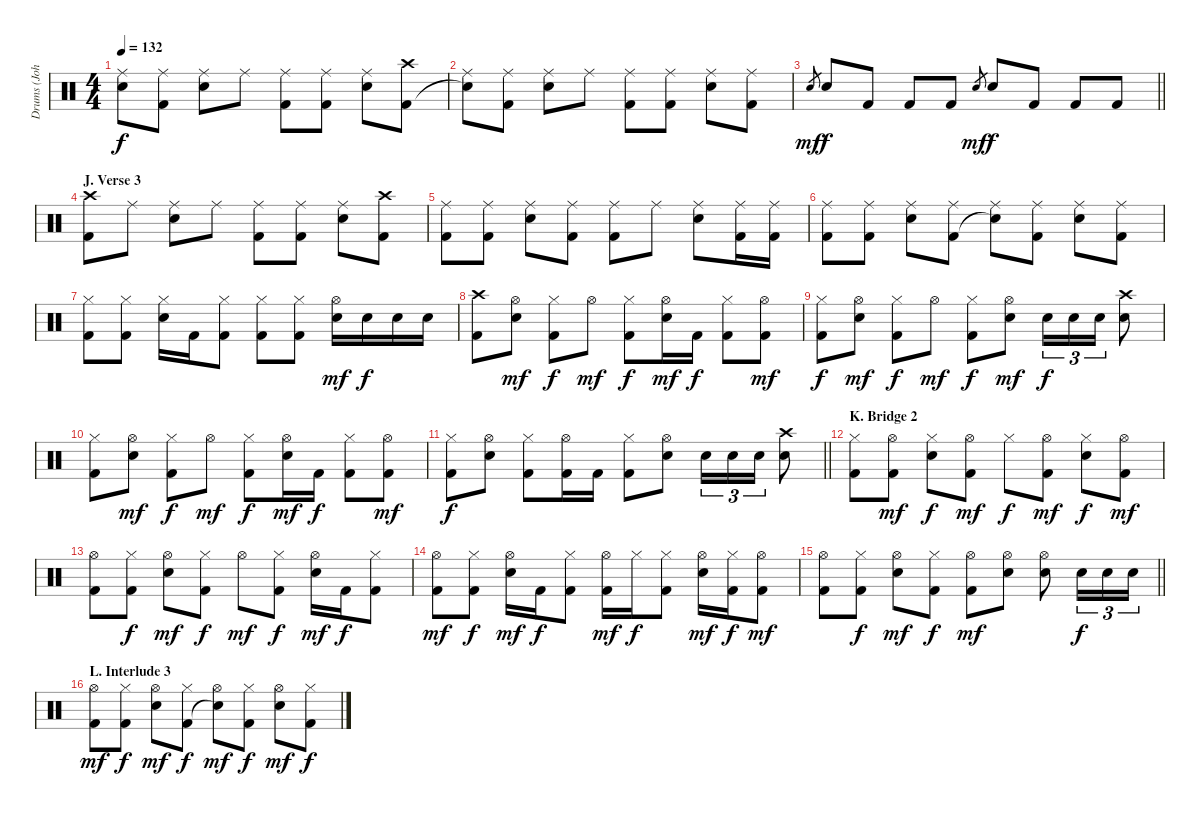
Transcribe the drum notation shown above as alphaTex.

\track ("Drums (John Bonham)" "Drums (Joh") {instrument percussion}
\staff {score}
\articulation defaults
\ts (4 4)
\tempo 132
\clef neutral
\ks c
("Ride (middle)" "Snare (hit)"{t}).8{dy f} ("Ride (middle)" "Kick (hit) 2").8 ("Ride (middle)" "Electric Snare (hit)").8 "Ride (middle)".8 ("Ride (middle)" "Kick (hit) 2").8 ("Ride (middle)" "Kick (hit) 2").8 ("Ride (middle)" "Electric Snare (hit)").8 ("Crash high (hit)" "Kick (hit) 2").8 |
("Ride (middle)" "Snare (hit)"{t}).8 ("Ride (middle)" "Kick (hit) 2").8 ("Ride (middle)" "Electric Snare (hit)").8 "Ride (middle)".8 ("Ride (middle)" "Kick (hit) 2").8 ("Ride (middle)" "Kick (hit) 2").8 ("Ride (middle)" "Electric Snare (hit)").8 ("Ride (middle)" "Kick (hit) 2").8 |
\barLineRight lightlight "Electric Snare (hit)".8{gr dy mf} "Electric Snare (hit)".8{dy f} "Kick (hit) 2".8 "Kick (hit) 2".8 "Kick (hit) 2".8 "Electric Snare (hit)".8{gr dy mf} "Electric Snare (hit)".8{dy f} "Kick (hit) 2".8 "Kick (hit) 2".8 "Kick (hit) 2".8
|
\section ("" "J. Verse 3")
("Crash high (hit)" "Kick (hit) 2").8 "Ride (middle)".8 ("Ride (middle)" "Electric Snare (hit)").8 "Ride (middle)".8 ("Ride (middle)" "Kick (hit) 2").8 ("Ride (middle)" "Kick (hit) 2").8 ("Ride (middle)" "Electric Snare (hit)").8 ("Crash high (hit)" "Kick (hit) 2").8 |
("Ride (middle)" "Kick (hit) 2").8 ("Ride (middle)" "Kick (hit) 2").8 ("Ride (middle)" "Electric Snare (hit)").8 ("Ride (middle)" "Kick (hit) 2").8 ("Ride (middle)" "Kick (hit) 2").8 "Ride (middle)".8 ("Ride (middle)" "Electric Snare (hit)").8 ("Ride (middle)" "Kick (hit) 2").16 ("Ride (middle)" "Kick (hit) 2").16 |
("Ride (middle)" "Kick (hit) 2").8 ("Ride (middle)" "Kick (hit) 2").8 ("Ride (middle)" "Electric Snare (hit)").8 ("Ride (middle)" "Kick (hit) 2").8 ("Ride (middle)" "Snare (hit)"{t}).8 ("Ride (middle)" "Kick (hit) 2").8 ("Ride (middle)" "Electric Snare (hit)").8 ("Ride (middle)" "Kick (hit) 2").8 |
("Hi-Hat (closed)" "Kick (hit) 2").8 ("Hi-Hat (closed)" "Kick (hit) 2").8 ("Hi-Hat (closed)" "Electric Snare (hit)").16 "Kick (hit) 2".16 ("Hi-Hat (closed)" "Kick (hit) 2").8 ("Hi-Hat (closed)" "Kick (hit) 2").8 ("Hi-Hat (closed)" "Kick (hit) 2").8 ("Hi-Hat (open)" "Electric Snare (hit)").16{dy mf} "Electric Snare (hit)".16{dy f} "Electric Snare (hit)".16 "Electric Snare (hit)".16 |
("Crash high (hit)" "Kick (hit) 2").8 ("Hi-Hat (open)" "Electric Snare (hit)").8{dy mf} ("Hi-Hat (closed)" "Kick (hit) 2").8{dy f} "Hi-Hat (open)".8{dy mf} ("Hi-Hat (closed)" "Kick (hit) 2").8{dy f} ("Hi-Hat (open)" "Electric Snare (hit)").16{dy mf} "Kick (hit) 2".16{dy f} ("Hi-Hat (closed)" "Kick (hit) 2").8 ("Hi-Hat (open)" "Kick (hit) 2").8{dy mf} |
("Hi-Hat (closed)" "Kick (hit) 2").8{dy f} ("Hi-Hat (open)" "Electric Snare (hit)").8{dy mf} ("Hi-Hat (closed)" "Kick (hit) 2").8{dy f} "Hi-Hat (open)".8{dy mf} ("Hi-Hat (closed)" "Kick (hit) 2").8{dy f} ("Hi-Hat (open)" "Electric Snare (hit)").8{dy mf} "Electric Snare (hit)".16{tu (3 2) dy f} "Electric Snare (hit)".16{tu (3 2)} "Electric Snare (hit)".16{tu (3 2)} ("Crash high (hit)" "Electric Snare (hit)").8 |
("Hi-Hat (closed)" "Kick (hit) 2").8 ("Hi-Hat (open)" "Electric Snare (hit)").8{dy mf} ("Hi-Hat (closed)" "Kick (hit) 2").8{dy f} "Hi-Hat (open)".8{dy mf} ("Hi-Hat (closed)" "Kick (hit) 2").8{dy f} ("Hi-Hat (open)" "Electric Snare (hit)").16{dy mf} "Kick (hit) 2".16{dy f} ("Hi-Hat (closed)" "Kick (hit) 2").8 ("Hi-Hat (open)" "Kick (hit) 2").8{dy mf} |
\barLineRight lightlight
("Hi-Hat (closed)" "Kick (hit) 2").8{dy f} ("Hi-Hat (open)" "Electric Snare (hit)").8 ("Hi-Hat (closed)" "Kick (hit) 2").8 ("Hi-Hat (open)" "Kick (hit) 2").16 "Kick (hit) 2".16 ("Hi-Hat (closed)" "Kick (hit) 2").8 ("Hi-Hat (open)" "Electric Snare (hit)").8 "Electric Snare (hit)".16{tu (3 2)} "Electric Snare (hit)".16{tu (3 2)} "Electric Snare (hit)".16{tu (3 2)} ("Crash high (hit)" "Electric Snare (hit)").8 |
\section ("" "K. Bridge 2")
("Hi-Hat (closed)" "Kick (hit) 2").8 ("Hi-Hat (open)" "Kick (hit) 2").8{dy mf} ("Hi-Hat (closed)" "Electric Snare (hit)").8{dy f} ("Hi-Hat (open)" "Kick (hit) 2").8{dy mf} "Hi-Hat (closed)".8{dy f} ("Hi-Hat (open)" "Kick (hit) 2").8{dy mf} ("Hi-Hat (closed)" "Electric Snare (hit)").8{dy f} ("Hi-Hat (open)" "Kick (hit) 2").8{dy mf} |
("Hi-Hat (open)" "Kick (hit) 2").8 ("Hi-Hat (closed)" "Kick (hit) 2").8{dy f} ("Hi-Hat (open)" "Electric Snare (hit)").8{dy mf} ("Hi-Hat (closed)" "Kick (hit) 2").8{dy f} "Hi-Hat (open)".8{dy mf} ("Hi-Hat (closed)" "Kick (hit) 2").8{dy f} ("Hi-Hat (open)" "Electric Snare (hit)").16{dy mf} "Kick (hit) 2".16{dy f} ("Hi-Hat (closed)" "Kick (hit) 2").8 |
("Hi-Hat (open)" "Kick (hit) 2").8{dy mf} ("Hi-Hat (closed)" "Kick (hit) 2").8{dy f} ("Hi-Hat (open)" "Electric Snare (hit)").16{dy mf} "Kick (hit) 2".16{dy f} ("Hi-Hat (closed)" "Kick (hit) 2").8 ("Hi-Hat (open)" "Kick (hit) 2").16{dy mf} "Hi-Hat (closed)".16{dy f} ("Hi-Hat (closed)" "Kick (hit) 2").8 ("Hi-Hat (open)" "Electric Snare (hit)").16{dy mf} ("Hi-Hat (closed)" "Kick (hit) 2").16{dy f} ("Hi-Hat (open)" "Kick (hit) 2").8{dy mf} |
\barLineRight lightlight
("Hi-Hat (open)" "Kick (hit) 2").8 ("Hi-Hat (closed)" "Kick (hit) 2").8{dy f} ("Hi-Hat (open)" "Electric Snare (hit)").8{dy mf} ("Hi-Hat (closed)" "Kick (hit) 2").8{dy f} ("Hi-Hat (open)" "Kick (hit) 2").8{dy mf} ("Hi-Hat (open)" "Electric Snare (hit)").8 ("Hi-Hat (open)" "Electric Snare (hit)").8 "Electric Snare (hit)".16{tu (3 2) dy f} "Electric Snare (hit)".16{tu (3 2)} "Electric Snare (hit)".16{tu (3 2)} |
\section ("" "L. Interlude 3")
("Hi-Hat (open)" "Kick (hit) 2").8{dy mf} ("Hi-Hat (closed)" "Kick (hit) 2").8{dy f} ("Hi-Hat (open)" "Electric Snare (hit)").8{dy mf} ("Hi-Hat (closed)" "Kick (hit) 2").8{dy f} ("Hi-Hat (open)" "Snare (hit)"{t}).8{dy mf} ("Hi-Hat (closed)" "Kick (hit) 2").8{dy f} ("Hi-Hat (open)" "Electric Snare (hit)").8{dy mf} ("Hi-Hat (closed)" "Kick (hit) 2").8{dy f}
